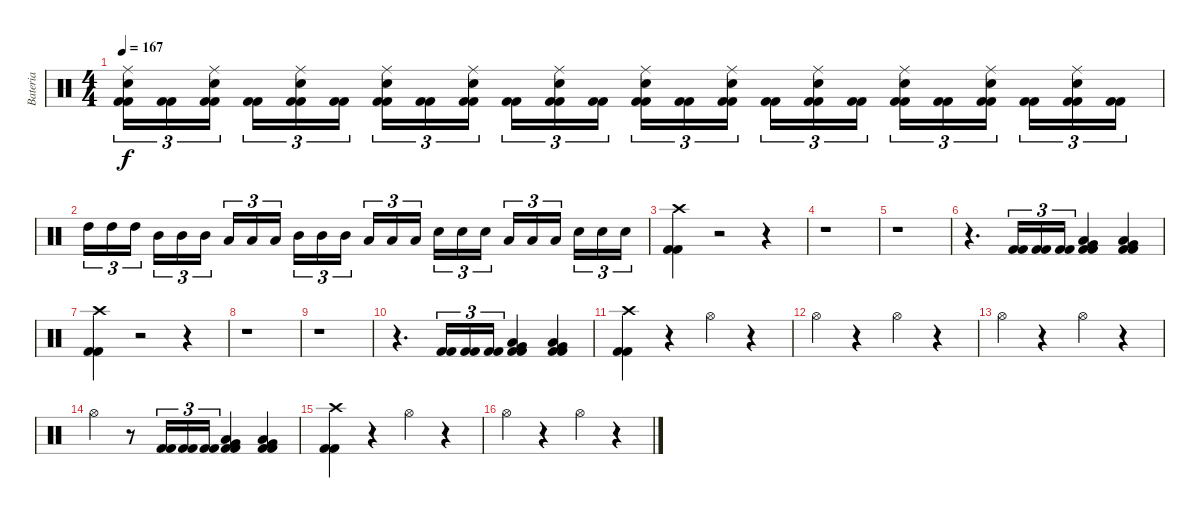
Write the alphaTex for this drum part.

\track ("Bateria" "Bateria") {instrument percussion}
\staff {score}
\articulation defaults
\ts (4 4)
\tempo 167
\clef neutral
\ks c
("Kick (hit) 2" "Kick (hit) 2" "Snare (hit) 2" "Ride (middle)").16{tu (3 2) dy f} ("Kick (hit) 2" "Kick (hit) 2").16{tu (3 2)} ("Kick (hit) 2" "Kick (hit) 2" "Snare (hit) 2" "Ride (middle)").16{tu (3 2)} ("Kick (hit) 2" "Kick (hit) 2").16{tu (3 2)} ("Kick (hit) 2" "Kick (hit) 2" "Snare (hit) 2" "Ride (middle)").16{tu (3 2)} ("Kick (hit) 2" "Kick (hit) 2").16{tu (3 2)} ("Kick (hit) 2" "Kick (hit) 2" "Snare (hit) 2" "Ride (middle)").16{tu (3 2)} ("Kick (hit) 2" "Kick (hit) 2").16{tu (3 2)} ("Kick (hit) 2" "Kick (hit) 2" "Snare (hit) 2" "Ride (middle)").16{tu (3 2)} ("Kick (hit) 2" "Kick (hit) 2").16{tu (3 2)} ("Kick (hit) 2" "Kick (hit) 2" "Snare (hit) 2" "Ride (middle)").16{tu (3 2)} ("Kick (hit) 2" "Kick (hit) 2").16{tu (3 2)} ("Kick (hit) 2" "Kick (hit) 2" "Snare (hit) 2" "Ride (middle)").16{tu (3 2)} ("Kick (hit) 2" "Kick (hit) 2").16{tu (3 2)} ("Kick (hit) 2" "Kick (hit) 2" "Snare (hit) 2" "Ride (middle)").16{tu (3 2)} ("Kick (hit) 2" "Kick (hit) 2").16{tu (3 2)} ("Kick (hit) 2" "Kick (hit) 2" "Snare (hit) 2" "Ride (middle)").16{tu (3 2)} ("Kick (hit) 2" "Kick (hit) 2").16{tu (3 2)} ("Kick (hit) 2" "Kick (hit) 2" "Snare (hit) 2" "Ride (middle)").16{tu (3 2)} ("Kick (hit) 2" "Kick (hit) 2").16{tu (3 2)} ("Kick (hit) 2" "Kick (hit) 2" "Snare (hit) 2" "Ride (middle)").16{tu (3 2)} ("Kick (hit) 2" "Kick (hit) 2").16{tu (3 2)} ("Kick (hit) 2" "Kick (hit) 2" "Snare (hit) 2" "Ride (middle)").16{tu (3 2)} ("Kick (hit) 2" "Kick (hit) 2").16{tu (3 2)} |
"High Tom (hit)".16{tu (3 2)} "High Tom (hit)".16{tu (3 2)} "High Tom (hit)".16{tu (3 2)} "Mid Tom (hit)".16{tu (3 2)} "Mid Tom (hit)".16{tu (3 2)} "Mid Tom (hit)".16{tu (3 2)} "Low Tom (hit)".16{tu (3 2)} "Low Tom (hit)".16{tu (3 2)} "Low Tom (hit)".16{tu (3 2)} "Mid Tom (hit)".16{tu (3 2)} "Mid Tom (hit)".16{tu (3 2)} "Mid Tom (hit)".16{tu (3 2)} "Low Tom (hit)".16{tu (3 2)} "Low Tom (hit)".16{tu (3 2)} "Low Tom (hit)".16{tu (3 2)} "Snare (hit) 2".16{tu (3 2)} "Snare (hit) 2".16{tu (3 2)} "Snare (hit) 2".16{tu (3 2)} "Low Tom (hit)".16{tu (3 2)} "Low Tom (hit)".16{tu (3 2)} "Low Tom (hit)".16{tu (3 2)} "Snare (hit) 2".16{tu (3 2)} "Snare (hit) 2".16{tu (3 2)} "Snare (hit) 2".16{tu (3 2)} |
("Kick (hit) 2" "Kick (hit) 2" "Crash high (hit)").4 r.2 r.4 |
r.1 |
r.1 |
r.4{d} ("Kick (hit) 2" "Kick (hit) 2").16{tu (3 2)} ("Kick (hit) 2" "Kick (hit) 2").16{tu (3 2)} ("Kick (hit) 2" "Kick (hit) 2").16{tu (3 2)} ("Kick (hit) 2" "Kick (hit) 2" "Low Tom (hit)" "Very Low Tom (hit)").4 ("Kick (hit) 2" "Kick (hit) 2" "Low Tom (hit)" "Very Low Tom (hit)").4 |
("Kick (hit) 2" "Kick (hit) 2" "Crash high (hit)").4 r.2 r.4 |
r.1 |
r.1 |
r.4{d} ("Kick (hit) 2" "Kick (hit) 2").16{tu (3 2)} ("Kick (hit) 2" "Kick (hit) 2").16{tu (3 2)} ("Kick (hit) 2" "Kick (hit) 2").16{tu (3 2)} ("Kick (hit) 2" "Kick (hit) 2" "Low Tom (hit)" "Very Low Tom (hit)").4 ("Kick (hit) 2" "Kick (hit) 2" "Low Tom (hit)" "Very Low Tom (hit)").4 |
("Kick (hit) 2" "Kick (hit) 2" "Crash high (hit)").4 r.4 "Hi-Hat (open)".4 r.4 |
"Hi-Hat (open)".4 r.4 "Hi-Hat (open)".4 r.4 |
"Hi-Hat (open)".4 r.4 "Hi-Hat (open)".4 r.4 |
"Hi-Hat (open)".4 r.8 ("Kick (hit) 2" "Kick (hit) 2").16{tu (3 2)} ("Kick (hit) 2" "Kick (hit) 2").16{tu (3 2)} ("Kick (hit) 2" "Kick (hit) 2").16{tu (3 2)} ("Kick (hit) 2" "Kick (hit) 2" "Low Tom (hit)" "Very Low Tom (hit)").4 ("Kick (hit) 2" "Kick (hit) 2" "Low Tom (hit)" "Very Low Tom (hit)").4 |
("Kick (hit) 2" "Kick (hit) 2" "Crash high (hit)").4 r.4 "Hi-Hat (open)".4 r.4 |
"Hi-Hat (open)".4 r.4 "Hi-Hat (open)".4 r.4
